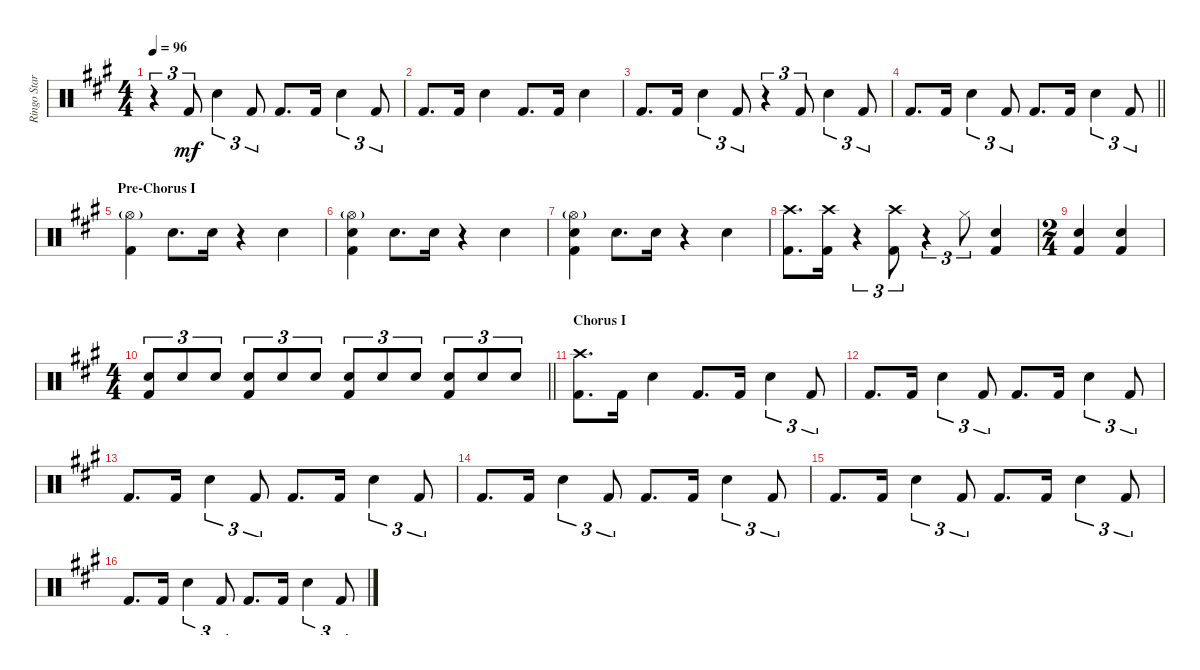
\track ("Ringo Starr - Drums" "Ringo Star") {instrument percussion}
\staff {score}
\articulation defaults
\ts (4 4)
\tempo 96
\clef neutral
\ks a
r.4{tu (3 2) dy mf} "Kick (hit) 2".8{tu (3 2)} "Snare (hit) 2".4{tu (3 2)} "Kick (hit) 2".8{tu (3 2)} "Kick (hit) 2".8{d} "Kick (hit) 2".16 "Snare (hit) 2".4{tu (3 2)} "Kick (hit) 2".8{tu (3 2)} |
"Kick (hit) 2".8{d} "Kick (hit) 2".16 "Snare (hit) 2".4 "Kick (hit) 2".8{d} "Kick (hit) 2".16 "Snare (hit) 2".4 |
"Kick (hit) 2".8{d} "Kick (hit) 2".16 "Snare (hit) 2".4{tu (3 2)} "Kick (hit) 2".8{tu (3 2)} r.4{tu (3 2)} "Kick (hit) 2".8{tu (3 2)} "Snare (hit) 2".4{tu (3 2)} "Kick (hit) 2".8{tu (3 2)} |
\barLineRight lightlight "Kick (hit) 2".8{d} "Kick (hit) 2".16 "Snare (hit) 2".4{tu (3 2)} "Kick (hit) 2".8{tu (3 2)} "Kick (hit) 2".8{d} "Kick (hit) 2".16 "Snare (hit) 2".4{tu (3 2)} "Kick (hit) 2".8{tu (3 2)}
|
\section ("" "Pre-Chorus I")
("Hi-Hat (open)"{g} "Kick (hit) 2").4 "Snare (hit) 2".8{d} "Snare (hit) 2".16 r.4 "Snare (hit) 2".4 |
("Hi-Hat (open)"{g} "Snare (hit) 2" "Kick (hit) 2").4 "Snare (hit) 2".8{d} "Snare (hit) 2".16 r.4 "Snare (hit) 2".4 |
("Hi-Hat (open)"{g} "Snare (hit) 2" "Kick (hit) 2").4 "Snare (hit) 2".8{d} "Snare (hit) 2".16 r.4 "Snare (hit) 2".4 |
("Crash high (hit)" "Kick (hit) 2").8{d} ("Crash high (hit)" "Kick (hit) 2").16 r.4{tu (3 2)} ("Crash high (hit)" "Kick (hit) 2").8{tu (3 2)} r.4{tu (3 2)} "Hi-Hat (closed)".8{tu (3 2)} ("Snare (hit) 2" "Kick (hit) 2").4 |
\ts (2 4)
("Snare (hit) 2" "Kick (hit) 2").4 ("Snare (hit) 2" "Kick (hit) 2").4 |
\ts (4 4)
\barLineRight lightlight
("Snare (hit) 2" "Kick (hit) 2").8{tu (3 2)} "Snare (hit) 2".8{tu (3 2)} "Snare (hit) 2".8{tu (3 2)} ("Snare (hit) 2" "Kick (hit) 2").8{tu (3 2)} "Snare (hit) 2".8{tu (3 2)} "Snare (hit) 2".8{tu (3 2)} ("Snare (hit) 2" "Kick (hit) 2").8{tu (3 2)} "Snare (hit) 2".8{tu (3 2)} "Snare (hit) 2".8{tu (3 2)} ("Snare (hit) 2" "Kick (hit) 2").8{tu (3 2)} "Snare (hit) 2".8{tu (3 2)} "Snare (hit) 2".8{tu (3 2)} |
\section ("" "Chorus I")
("Crash high (hit)" "Kick (hit) 2").8{d} "Kick (hit) 2".16 "Snare (hit) 2".4 "Kick (hit) 2".8{d} "Kick (hit) 2".16 "Snare (hit) 2".4{tu (3 2)} "Kick (hit) 2".8{tu (3 2)} |
"Kick (hit) 2".8{d} "Kick (hit) 2".16 "Snare (hit) 2".4{tu (3 2)} "Kick (hit) 2".8{tu (3 2)} "Kick (hit) 2".8{d} "Kick (hit) 2".16 "Snare (hit) 2".4{tu (3 2)} "Kick (hit) 2".8{tu (3 2)} |
"Kick (hit) 2".8{d} "Kick (hit) 2".16 "Snare (hit) 2".4{tu (3 2)} "Kick (hit) 2".8{tu (3 2)} "Kick (hit) 2".8{d} "Kick (hit) 2".16 "Snare (hit) 2".4{tu (3 2)} "Kick (hit) 2".8{tu (3 2)} |
"Kick (hit) 2".8{d} "Kick (hit) 2".16 "Snare (hit) 2".4{tu (3 2)} "Kick (hit) 2".8{tu (3 2)} "Kick (hit) 2".8{d} "Kick (hit) 2".16 "Snare (hit) 2".4{tu (3 2)} "Kick (hit) 2".8{tu (3 2)} |
"Kick (hit) 2".8{d} "Kick (hit) 2".16 "Snare (hit) 2".4{tu (3 2)} "Kick (hit) 2".8{tu (3 2)} "Kick (hit) 2".8{d} "Kick (hit) 2".16 "Snare (hit) 2".4{tu (3 2)} "Kick (hit) 2".8{tu (3 2)} |
"Kick (hit) 2".8{d} "Kick (hit) 2".16 "Snare (hit) 2".4{tu (3 2)} "Kick (hit) 2".8{tu (3 2)} "Kick (hit) 2".8{d} "Kick (hit) 2".16 "Snare (hit) 2".4{tu (3 2)} "Kick (hit) 2".8{tu (3 2)}
